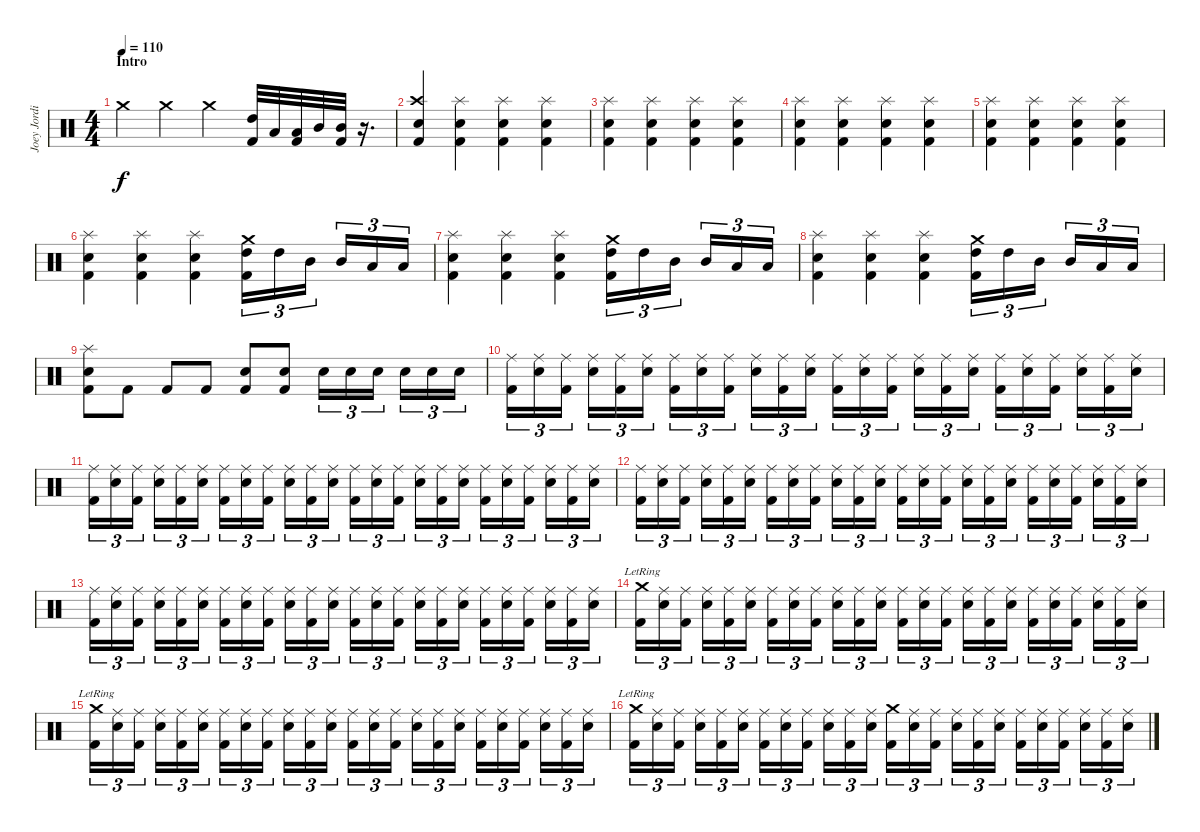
\track ("Joey Jordison" "Joey Jordi") {instrument percussion}
\staff {score}
\articulation defaults
\ts (4 4)
\section ("" "Intro")
\tempo 110
\clef neutral
\ks c "Crash medium (hit)".4{dy f} "Crash medium (hit)".4 "Crash medium (hit)".4
("High Tom (hit)" "Kick (hit) 2").32 "Low Tom (hit)".32 ("Low Tom (hit)" "Kick (hit) 2").32 "Mid Tom (hit)".32 ("Mid Tom (hit)" "Kick (hit) 2").32 r.16{d} |
("Crash high (hit)" "Snare (hit) 2" "Kick (hit) 2").4 ("Splash (hit)" "Snare (hit) 2" "Kick (hit) 2").4 ("Splash (hit)" "Snare (hit) 2" "Kick (hit) 2").4 ("Splash (hit)" "Snare (hit) 2" "Kick (hit) 2").4 |
("Splash (hit)" "Snare (hit) 2" "Kick (hit) 2").4 ("Splash (hit)" "Snare (hit) 2" "Kick (hit) 2").4 ("Splash (hit)" "Snare (hit) 2" "Kick (hit) 2").4 ("Splash (hit)" "Snare (hit) 2" "Kick (hit) 2").4 |
("Splash (hit)" "Snare (hit) 2" "Kick (hit) 2").4 ("Splash (hit)" "Snare (hit) 2" "Kick (hit) 2").4 ("Splash (hit)" "Snare (hit) 2" "Kick (hit) 2").4 ("Splash (hit)" "Snare (hit) 2" "Kick (hit) 2").4 |
("Splash (hit)" "Snare (hit) 2" "Kick (hit) 2").4 ("Splash (hit)" "Snare (hit) 2" "Kick (hit) 2").4 ("Splash (hit)" "Snare (hit) 2" "Kick (hit) 2").4 ("Splash (hit)" "Snare (hit) 2" "Kick (hit) 2").4 |
("Splash (hit)" "Snare (hit) 2" "Kick (hit) 2").4 ("Splash (hit)" "Snare (hit) 2" "Kick (hit) 2").4 ("Splash (hit)" "Snare (hit) 2" "Kick (hit) 2").4 ("Crash medium (hit)" "High Tom (hit)" "Kick (hit) 2").16{tu (3 2)} "High Tom (hit)".16{tu (3 2)} "Mid Tom (hit)".16{tu (3 2)} "Mid Tom (hit)".16{tu (3 2)} "Low Tom (hit)".16{tu (3 2)} "Low Tom (hit)".16{tu (3 2)} |
("Splash (hit)" "Snare (hit) 2" "Kick (hit) 2").4 ("Splash (hit)" "Snare (hit) 2" "Kick (hit) 2").4 ("Splash (hit)" "Snare (hit) 2" "Kick (hit) 2").4 ("Crash medium (hit)" "High Tom (hit)" "Kick (hit) 2").16{tu (3 2)} "High Tom (hit)".16{tu (3 2)} "Mid Tom (hit)".16{tu (3 2)} "Mid Tom (hit)".16{tu (3 2)} "Low Tom (hit)".16{tu (3 2)} "Low Tom (hit)".16{tu (3 2)} |
("Splash (hit)" "Snare (hit) 2" "Kick (hit) 2").4 ("Splash (hit)" "Snare (hit) 2" "Kick (hit) 2").4 ("Splash (hit)" "Snare (hit) 2" "Kick (hit) 2").4 ("Crash medium (hit)" "High Tom (hit)" "Kick (hit) 2").16{tu (3 2)} "High Tom (hit)".16{tu (3 2)} "Mid Tom (hit)".16{tu (3 2)} "Mid Tom (hit)".16{tu (3 2)} "Low Tom (hit)".16{tu (3 2)} "Low Tom (hit)".16{tu (3 2)} |
("Splash (hit)" "Snare (hit) 2" "Kick (hit) 2").8 "Kick (hit) 2".8 "Kick (hit) 2".8 "Kick (hit) 2".8 ("Snare (hit) 2" "Kick (hit) 2").8 ("Snare (hit) 2" "Kick (hit) 2").8 "Snare (hit) 2".16{tu (3 2)} "Snare (hit) 2".16{tu (3 2)} "Snare (hit) 2".16{tu (3 2)} "Snare (hit) 2".16{tu (3 2)} "Snare (hit) 2".16{tu (3 2)} "Snare (hit) 2".16{tu (3 2)} |
("Ride (middle)" "Kick (hit) 2").16{tu (3 2)} ("Ride (middle)" "Snare (hit) 2").16{tu (3 2)} ("Ride (middle)" "Kick (hit) 2").16{tu (3 2)} ("Ride (middle)" "Snare (hit) 2").16{tu (3 2)} ("Ride (middle)" "Kick (hit) 2").16{tu (3 2)} ("Ride (middle)" "Snare (hit) 2").16{tu (3 2)} ("Ride (middle)" "Kick (hit) 2").16{tu (3 2)} ("Ride (middle)" "Snare (hit) 2").16{tu (3 2)} ("Ride (middle)" "Kick (hit) 2").16{tu (3 2)} ("Ride (middle)" "Snare (hit) 2").16{tu (3 2)} ("Ride (middle)" "Kick (hit) 2").16{tu (3 2)} ("Ride (middle)" "Snare (hit) 2").16{tu (3 2)} ("Ride (middle)" "Kick (hit) 2").16{tu (3 2)} ("Ride (middle)" "Snare (hit) 2").16{tu (3 2)} ("Ride (middle)" "Kick (hit) 2").16{tu (3 2)} ("Ride (middle)" "Snare (hit) 2").16{tu (3 2)} ("Ride (middle)" "Kick (hit) 2").16{tu (3 2)} ("Ride (middle)" "Snare (hit) 2").16{tu (3 2)} ("Ride (middle)" "Kick (hit) 2").16{tu (3 2)} ("Ride (middle)" "Snare (hit) 2").16{tu (3 2)} ("Ride (middle)" "Kick (hit) 2").16{tu (3 2)} ("Ride (middle)" "Snare (hit) 2").16{tu (3 2)} ("Ride (middle)" "Kick (hit) 2").16{tu (3 2)} ("Ride (middle)" "Snare (hit) 2").16{tu (3 2)} |
("Ride (middle)" "Kick (hit) 2").16{tu (3 2)} ("Ride (middle)" "Snare (hit) 2").16{tu (3 2)} ("Ride (middle)" "Kick (hit) 2").16{tu (3 2)} ("Ride (middle)" "Snare (hit) 2").16{tu (3 2)} ("Ride (middle)" "Kick (hit) 2").16{tu (3 2)} ("Ride (middle)" "Snare (hit) 2").16{tu (3 2)} ("Ride (middle)" "Kick (hit) 2").16{tu (3 2)} ("Ride (middle)" "Snare (hit) 2").16{tu (3 2)} ("Ride (middle)" "Kick (hit) 2").16{tu (3 2)} ("Ride (middle)" "Snare (hit) 2").16{tu (3 2)} ("Ride (middle)" "Kick (hit) 2").16{tu (3 2)} ("Ride (middle)" "Snare (hit) 2").16{tu (3 2)} ("Ride (middle)" "Kick (hit) 2").16{tu (3 2)} ("Ride (middle)" "Snare (hit) 2").16{tu (3 2)} ("Ride (middle)" "Kick (hit) 2").16{tu (3 2)} ("Ride (middle)" "Snare (hit) 2").16{tu (3 2)} ("Ride (middle)" "Kick (hit) 2").16{tu (3 2)} ("Ride (middle)" "Snare (hit) 2").16{tu (3 2)} ("Ride (middle)" "Kick (hit) 2").16{tu (3 2)} ("Ride (middle)" "Snare (hit) 2").16{tu (3 2)} ("Ride (middle)" "Kick (hit) 2").16{tu (3 2)} ("Ride (middle)" "Snare (hit) 2").16{tu (3 2)} ("Ride (middle)" "Kick (hit) 2").16{tu (3 2)} ("Ride (middle)" "Snare (hit) 2").16{tu (3 2)} |
("Ride (middle)" "Kick (hit) 2").16{tu (3 2)} ("Ride (middle)" "Snare (hit) 2").16{tu (3 2)} ("Ride (middle)" "Kick (hit) 2").16{tu (3 2)} ("Ride (middle)" "Snare (hit) 2").16{tu (3 2)} ("Ride (middle)" "Kick (hit) 2").16{tu (3 2)} ("Ride (middle)" "Snare (hit) 2").16{tu (3 2)} ("Ride (middle)" "Kick (hit) 2").16{tu (3 2)} ("Ride (middle)" "Snare (hit) 2").16{tu (3 2)} ("Ride (middle)" "Kick (hit) 2").16{tu (3 2)} ("Ride (middle)" "Snare (hit) 2").16{tu (3 2)} ("Ride (middle)" "Kick (hit) 2").16{tu (3 2)} ("Ride (middle)" "Snare (hit) 2").16{tu (3 2)} ("Ride (middle)" "Kick (hit) 2").16{tu (3 2)} ("Ride (middle)" "Snare (hit) 2").16{tu (3 2)} ("Ride (middle)" "Kick (hit) 2").16{tu (3 2)} ("Ride (middle)" "Snare (hit) 2").16{tu (3 2)} ("Ride (middle)" "Kick (hit) 2").16{tu (3 2)} ("Ride (middle)" "Snare (hit) 2").16{tu (3 2)} ("Ride (middle)" "Kick (hit) 2").16{tu (3 2)} ("Ride (middle)" "Snare (hit) 2").16{tu (3 2)} ("Ride (middle)" "Kick (hit) 2").16{tu (3 2)} ("Ride (middle)" "Snare (hit) 2").16{tu (3 2)} ("Ride (middle)" "Kick (hit) 2").16{tu (3 2)} ("Ride (middle)" "Snare (hit) 2").16{tu (3 2)} |
("Ride (middle)" "Kick (hit) 2").16{tu (3 2)} ("Ride (middle)" "Snare (hit) 2").16{tu (3 2)} ("Ride (middle)" "Kick (hit) 2").16{tu (3 2)} ("Ride (middle)" "Snare (hit) 2").16{tu (3 2)} ("Ride (middle)" "Kick (hit) 2").16{tu (3 2)} ("Ride (middle)" "Snare (hit) 2").16{tu (3 2)} ("Ride (middle)" "Kick (hit) 2").16{tu (3 2)} ("Ride (middle)" "Snare (hit) 2").16{tu (3 2)} ("Ride (middle)" "Kick (hit) 2").16{tu (3 2)} ("Ride (middle)" "Snare (hit) 2").16{tu (3 2)} ("Ride (middle)" "Kick (hit) 2").16{tu (3 2)} ("Ride (middle)" "Snare (hit) 2").16{tu (3 2)} ("Ride (middle)" "Kick (hit) 2").16{tu (3 2)} ("Ride (middle)" "Snare (hit) 2").16{tu (3 2)} ("Ride (middle)" "Kick (hit) 2").16{tu (3 2)} ("Ride (middle)" "Snare (hit) 2").16{tu (3 2)} ("Ride (middle)" "Kick (hit) 2").16{tu (3 2)} ("Ride (middle)" "Snare (hit) 2").16{tu (3 2)} ("Ride (middle)" "Kick (hit) 2").16{tu (3 2)} ("Ride (middle)" "Snare (hit) 2").16{tu (3 2)} ("Ride (middle)" "Kick (hit) 2").16{tu (3 2)} ("Ride (middle)" "Snare (hit) 2").16{tu (3 2)} ("Ride (middle)" "Kick (hit) 2").16{tu (3 2)} ("Ride (middle)" "Snare (hit) 2").16{tu (3 2)} |
("Crash medium (hit)"{lr} "Kick (hit) 2").16{tu (3 2)} ("Ride (middle)" "Snare (hit) 2").16{tu (3 2)} ("Ride (middle)" "Kick (hit) 2").16{tu (3 2)} ("Ride (middle)" "Snare (hit) 2").16{tu (3 2)} ("Ride (middle)" "Kick (hit) 2").16{tu (3 2)} ("Ride (middle)" "Snare (hit) 2").16{tu (3 2)} ("Ride (middle)" "Kick (hit) 2").16{tu (3 2)} ("Ride (middle)" "Snare (hit) 2").16{tu (3 2)} ("Ride (middle)" "Kick (hit) 2").16{tu (3 2)} ("Ride (middle)" "Snare (hit) 2").16{tu (3 2)} ("Ride (middle)" "Kick (hit) 2").16{tu (3 2)} ("Ride (middle)" "Snare (hit) 2").16{tu (3 2)} ("Ride (middle)" "Kick (hit) 2").16{tu (3 2)} ("Ride (middle)" "Snare (hit) 2").16{tu (3 2)} ("Ride (middle)" "Kick (hit) 2").16{tu (3 2)} ("Ride (middle)" "Snare (hit) 2").16{tu (3 2)} ("Ride (middle)" "Kick (hit) 2").16{tu (3 2)} ("Ride (middle)" "Snare (hit) 2").16{tu (3 2)} ("Ride (middle)" "Kick (hit) 2").16{tu (3 2)} ("Ride (middle)" "Snare (hit) 2").16{tu (3 2)} ("Ride (middle)" "Kick (hit) 2").16{tu (3 2)} ("Ride (middle)" "Snare (hit) 2").16{tu (3 2)} ("Ride (middle)" "Kick (hit) 2").16{tu (3 2)} ("Ride (middle)" "Snare (hit) 2").16{tu (3 2)} |
("Crash medium (hit)"{lr} "Kick (hit) 2").16{tu (3 2)} ("Ride (middle)" "Snare (hit) 2").16{tu (3 2)} ("Ride (middle)" "Kick (hit) 2").16{tu (3 2)} ("Ride (middle)" "Snare (hit) 2").16{tu (3 2)} ("Ride (middle)" "Kick (hit) 2").16{tu (3 2)} ("Ride (middle)" "Snare (hit) 2").16{tu (3 2)} ("Ride (middle)" "Kick (hit) 2").16{tu (3 2)} ("Ride (middle)" "Snare (hit) 2").16{tu (3 2)} ("Ride (middle)" "Kick (hit) 2").16{tu (3 2)} ("Ride (middle)" "Snare (hit) 2").16{tu (3 2)} ("Ride (middle)" "Kick (hit) 2").16{tu (3 2)} ("Ride (middle)" "Snare (hit) 2").16{tu (3 2)} ("Ride (middle)" "Kick (hit) 2").16{tu (3 2)} ("Ride (middle)" "Snare (hit) 2").16{tu (3 2)} ("Ride (middle)" "Kick (hit) 2").16{tu (3 2)} ("Ride (middle)" "Snare (hit) 2").16{tu (3 2)} ("Ride (middle)" "Kick (hit) 2").16{tu (3 2)} ("Ride (middle)" "Snare (hit) 2").16{tu (3 2)} ("Ride (middle)" "Kick (hit) 2").16{tu (3 2)} ("Ride (middle)" "Snare (hit) 2").16{tu (3 2)} ("Ride (middle)" "Kick (hit) 2").16{tu (3 2)} ("Ride (middle)" "Snare (hit) 2").16{tu (3 2)} ("Ride (middle)" "Kick (hit) 2").16{tu (3 2)} ("Ride (middle)" "Snare (hit) 2").16{tu (3 2)} |
("Crash medium (hit)"{lr} "Kick (hit) 2").16{tu (3 2)} ("Ride (middle)" "Snare (hit) 2").16{tu (3 2)} ("Ride (middle)" "Kick (hit) 2").16{tu (3 2)} ("Ride (middle)" "Snare (hit) 2").16{tu (3 2)} ("Ride (middle)" "Kick (hit) 2").16{tu (3 2)} ("Ride (middle)" "Snare (hit) 2").16{tu (3 2)} ("Ride (middle)" "Kick (hit) 2").16{tu (3 2)} ("Ride (middle)" "Snare (hit) 2").16{tu (3 2)} ("Ride (middle)" "Kick (hit) 2").16{tu (3 2)} ("Ride (middle)" "Snare (hit) 2").16{tu (3 2)} ("Ride (middle)" "Kick (hit) 2").16{tu (3 2)} ("Ride (middle)" "Snare (hit) 2").16{tu (3 2)} ("Crash medium (hit)" "Kick (hit) 2").16{tu (3 2)} ("Ride (middle)" "Snare (hit) 2").16{tu (3 2)} ("Ride (middle)" "Kick (hit) 2").16{tu (3 2)} ("Ride (middle)" "Snare (hit) 2").16{tu (3 2)} ("Ride (middle)" "Kick (hit) 2").16{tu (3 2)} ("Ride (middle)" "Snare (hit) 2").16{tu (3 2)} ("Ride (middle)" "Kick (hit) 2").16{tu (3 2)} ("Ride (middle)" "Snare (hit) 2").16{tu (3 2)} ("Ride (middle)" "Kick (hit) 2").16{tu (3 2)} ("Ride (middle)" "Snare (hit) 2").16{tu (3 2)} ("Ride (middle)" "Kick (hit) 2").16{tu (3 2)} ("Ride (middle)" "Snare (hit) 2").16{tu (3 2)}
